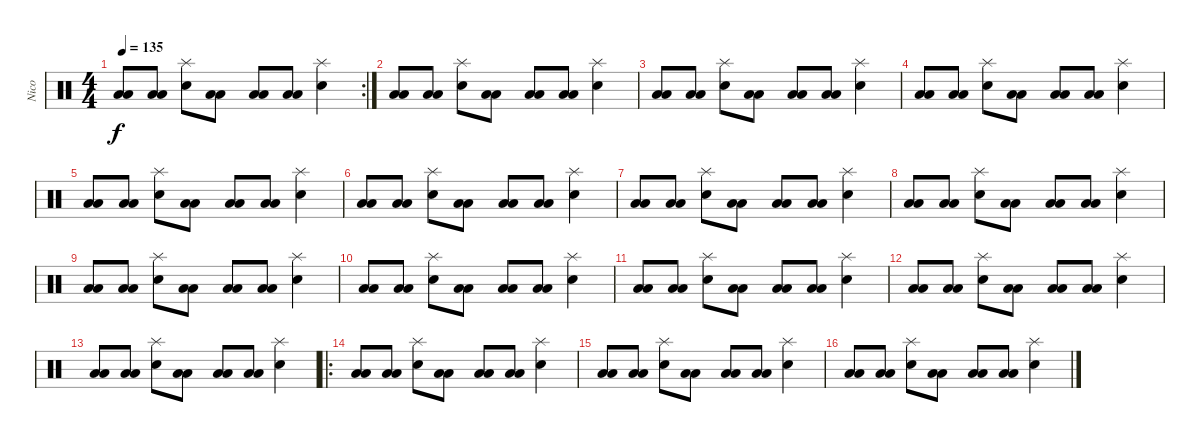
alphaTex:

\track ("Nico" "Nico") {instrument percussion}
\staff {score}
\articulation defaults
\rc 2
\ts (4 4)
\tempo 135
\clef neutral
\ks c
("Low Floor Tom (hit)" "Low Floor Tom (hit)").8{dy f} ("Low Floor Tom (hit)" "Low Floor Tom (hit)").8 ("Snare (hit) 2" "Splash (hit)").8 ("Low Floor Tom (hit)" "Low Floor Tom (hit)").8 ("Low Floor Tom (hit)" "Low Floor Tom (hit)").8 ("Low Floor Tom (hit)" "Low Floor Tom (hit)").8 ("Snare (hit) 2" "Splash (hit)").4 |
("Low Floor Tom (hit)" "Low Floor Tom (hit)").8 ("Low Floor Tom (hit)" "Low Floor Tom (hit)").8 ("Snare (hit) 2" "Splash (hit)").8 ("Low Floor Tom (hit)" "Low Floor Tom (hit)").8 ("Low Floor Tom (hit)" "Low Floor Tom (hit)").8 ("Low Floor Tom (hit)" "Low Floor Tom (hit)").8 ("Snare (hit) 2" "Splash (hit)").4 |
("Low Floor Tom (hit)" "Low Floor Tom (hit)").8 ("Low Floor Tom (hit)" "Low Floor Tom (hit)").8 ("Snare (hit) 2" "Splash (hit)").8 ("Low Floor Tom (hit)" "Low Floor Tom (hit)").8 ("Low Floor Tom (hit)" "Low Floor Tom (hit)").8 ("Low Floor Tom (hit)" "Low Floor Tom (hit)").8 ("Snare (hit) 2" "Splash (hit)").4 |
("Low Floor Tom (hit)" "Low Floor Tom (hit)").8 ("Low Floor Tom (hit)" "Low Floor Tom (hit)").8 ("Snare (hit) 2" "Splash (hit)").8 ("Low Floor Tom (hit)" "Low Floor Tom (hit)").8 ("Low Floor Tom (hit)" "Low Floor Tom (hit)").8 ("Low Floor Tom (hit)" "Low Floor Tom (hit)").8 ("Snare (hit) 2" "Splash (hit)").4 |
("Low Floor Tom (hit)" "Low Floor Tom (hit)").8 ("Low Floor Tom (hit)" "Low Floor Tom (hit)").8 ("Snare (hit) 2" "Splash (hit)").8 ("Low Floor Tom (hit)" "Low Floor Tom (hit)").8 ("Low Floor Tom (hit)" "Low Floor Tom (hit)").8 ("Low Floor Tom (hit)" "Low Floor Tom (hit)").8 ("Snare (hit) 2" "Splash (hit)").4 |
("Low Floor Tom (hit)" "Low Floor Tom (hit)").8 ("Low Floor Tom (hit)" "Low Floor Tom (hit)").8 ("Snare (hit) 2" "Splash (hit)").8 ("Low Floor Tom (hit)" "Low Floor Tom (hit)").8 ("Low Floor Tom (hit)" "Low Floor Tom (hit)").8 ("Low Floor Tom (hit)" "Low Floor Tom (hit)").8 ("Snare (hit) 2" "Splash (hit)").4 |
("Low Floor Tom (hit)" "Low Floor Tom (hit)").8 ("Low Floor Tom (hit)" "Low Floor Tom (hit)").8 ("Snare (hit) 2" "Splash (hit)").8 ("Low Floor Tom (hit)" "Low Floor Tom (hit)").8 ("Low Floor Tom (hit)" "Low Floor Tom (hit)").8 ("Low Floor Tom (hit)" "Low Floor Tom (hit)").8 ("Snare (hit) 2" "Splash (hit)").4 |
("Low Floor Tom (hit)" "Low Floor Tom (hit)").8 ("Low Floor Tom (hit)" "Low Floor Tom (hit)").8 ("Snare (hit) 2" "Splash (hit)").8 ("Low Floor Tom (hit)" "Low Floor Tom (hit)").8 ("Low Floor Tom (hit)" "Low Floor Tom (hit)").8 ("Low Floor Tom (hit)" "Low Floor Tom (hit)").8 ("Snare (hit) 2" "Splash (hit)").4 |
("Low Floor Tom (hit)" "Low Floor Tom (hit)").8 ("Low Floor Tom (hit)" "Low Floor Tom (hit)").8 ("Snare (hit) 2" "Splash (hit)").8 ("Low Floor Tom (hit)" "Low Floor Tom (hit)").8 ("Low Floor Tom (hit)" "Low Floor Tom (hit)").8 ("Low Floor Tom (hit)" "Low Floor Tom (hit)").8 ("Snare (hit) 2" "Splash (hit)").4 |
("Low Floor Tom (hit)" "Low Floor Tom (hit)").8 ("Low Floor Tom (hit)" "Low Floor Tom (hit)").8 ("Snare (hit) 2" "Splash (hit)").8 ("Low Floor Tom (hit)" "Low Floor Tom (hit)").8 ("Low Floor Tom (hit)" "Low Floor Tom (hit)").8 ("Low Floor Tom (hit)" "Low Floor Tom (hit)").8 ("Snare (hit) 2" "Splash (hit)").4 |
("Low Floor Tom (hit)" "Low Floor Tom (hit)").8 ("Low Floor Tom (hit)" "Low Floor Tom (hit)").8 ("Snare (hit) 2" "Splash (hit)").8 ("Low Floor Tom (hit)" "Low Floor Tom (hit)").8 ("Low Floor Tom (hit)" "Low Floor Tom (hit)").8 ("Low Floor Tom (hit)" "Low Floor Tom (hit)").8 ("Snare (hit) 2" "Splash (hit)").4 |
("Low Floor Tom (hit)" "Low Floor Tom (hit)").8 ("Low Floor Tom (hit)" "Low Floor Tom (hit)").8 ("Snare (hit) 2" "Splash (hit)").8 ("Low Floor Tom (hit)" "Low Floor Tom (hit)").8 ("Low Floor Tom (hit)" "Low Floor Tom (hit)").8 ("Low Floor Tom (hit)" "Low Floor Tom (hit)").8 ("Snare (hit) 2" "Splash (hit)").4 |
("Low Floor Tom (hit)" "Low Floor Tom (hit)").8 ("Low Floor Tom (hit)" "Low Floor Tom (hit)").8 ("Snare (hit) 2" "Splash (hit)").8 ("Low Floor Tom (hit)" "Low Floor Tom (hit)").8 ("Low Floor Tom (hit)" "Low Floor Tom (hit)").8 ("Low Floor Tom (hit)" "Low Floor Tom (hit)").8 ("Snare (hit) 2" "Splash (hit)").4 |
\ro
("Low Floor Tom (hit)" "Low Floor Tom (hit)").8 ("Low Floor Tom (hit)" "Low Floor Tom (hit)").8 ("Snare (hit) 2" "Splash (hit)").8 ("Low Floor Tom (hit)" "Low Floor Tom (hit)").8 ("Low Floor Tom (hit)" "Low Floor Tom (hit)").8 ("Low Floor Tom (hit)" "Low Floor Tom (hit)").8 ("Snare (hit) 2" "Splash (hit)").4 |
("Low Floor Tom (hit)" "Low Floor Tom (hit)").8 ("Low Floor Tom (hit)" "Low Floor Tom (hit)").8 ("Snare (hit) 2" "Splash (hit)").8 ("Low Floor Tom (hit)" "Low Floor Tom (hit)").8 ("Low Floor Tom (hit)" "Low Floor Tom (hit)").8 ("Low Floor Tom (hit)" "Low Floor Tom (hit)").8 ("Snare (hit) 2" "Splash (hit)").4 |
("Low Floor Tom (hit)" "Low Floor Tom (hit)").8 ("Low Floor Tom (hit)" "Low Floor Tom (hit)").8 ("Snare (hit) 2" "Splash (hit)").8 ("Low Floor Tom (hit)" "Low Floor Tom (hit)").8 ("Low Floor Tom (hit)" "Low Floor Tom (hit)").8 ("Low Floor Tom (hit)" "Low Floor Tom (hit)").8 ("Snare (hit) 2" "Splash (hit)").4
